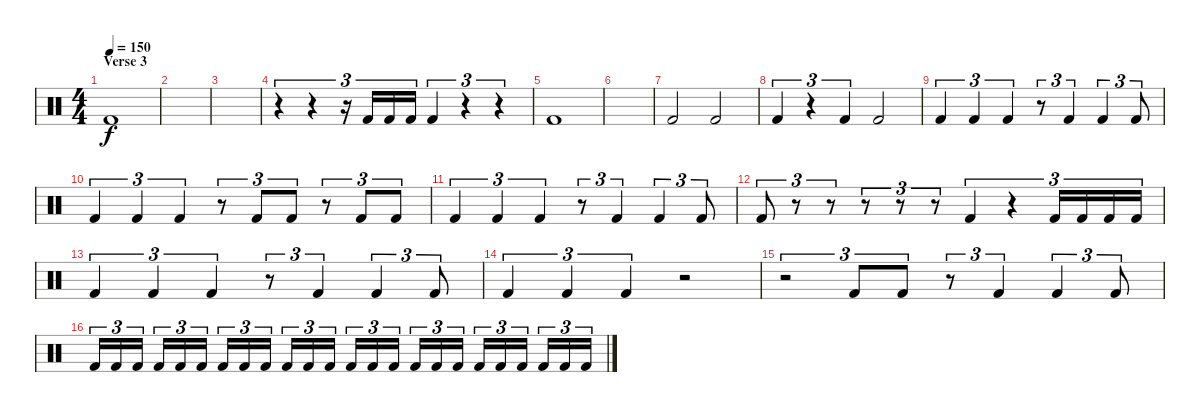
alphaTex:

\track "" {instrument percussion}
\staff {score}
\articulation defaults
\ts (4 4)
\section ("" "Verse 3")
\tempo 150
\clef neutral
\ks c "Kick (hit) 2".1{dy f}
|
|
|
r.4{tu (3 2)} r.4{tu (3 2)} r.16{tu (3 2)} "Kick (hit) 2".16{tu (3 2)} "Kick (hit) 2".16{tu (3 2)} "Kick (hit) 2".16{tu (3 2)} "Kick (hit) 2".4{tu (3 2)} r.4{tu (3 2)} r.4{tu (3 2)} |
"Kick (hit) 2".1 |
|
"Kick (hit) 2".2 "Kick (hit) 2".2 |
"Kick (hit) 2".4{tu (3 2)} r.4{tu (3 2)} "Kick (hit) 2".4{tu (3 2)} "Kick (hit) 2".2 |
"Kick (hit) 2".4{tu (3 2)} "Kick (hit) 2".4{tu (3 2)} "Kick (hit) 2".4{tu (3 2)} r.8{tu (3 2)} "Kick (hit) 2".4{tu (3 2)} "Kick (hit) 2".4{tu (3 2)} "Kick (hit) 2".8{tu (3 2)} |
"Kick (hit) 2".4{tu (3 2)} "Kick (hit) 2".4{tu (3 2)} "Kick (hit) 2".4{tu (3 2)} r.8{tu (3 2)} "Kick (hit) 2".8{tu (3 2)} "Kick (hit) 2".8{tu (3 2)} r.8{tu (3 2)} "Kick (hit) 2".8{tu (3 2)} "Kick (hit) 2".8{tu (3 2)} |
"Kick (hit) 2".4{tu (3 2)} "Kick (hit) 2".4{tu (3 2)} "Kick (hit) 2".4{tu (3 2)} r.8{tu (3 2)} "Kick (hit) 2".4{tu (3 2)} "Kick (hit) 2".4{tu (3 2)} "Kick (hit) 2".8{tu (3 2)} |
"Kick (hit) 2".8{tu (3 2)} r.8{tu (3 2)} r.8{tu (3 2)} r.8{tu (3 2)} r.8{tu (3 2)} r.8{tu (3 2)} "Kick (hit) 2".4{tu (3 2)} r.4{tu (3 2)} "Kick (hit) 2".16{tu (3 2)} "Kick (hit) 2".16{tu (3 2)} "Kick (hit) 2".16{tu (3 2)} "Kick (hit) 2".16{tu (3 2)} |
"Kick (hit) 2".4{tu (3 2)} "Kick (hit) 2".4{tu (3 2)} "Kick (hit) 2".4{tu (3 2)} r.8{tu (3 2)} "Kick (hit) 2".4{tu (3 2)} "Kick (hit) 2".4{tu (3 2)} "Kick (hit) 2".8{tu (3 2)} |
"Kick (hit) 2".4{tu (3 2)} "Kick (hit) 2".4{tu (3 2)} "Kick (hit) 2".4{tu (3 2)} r.2 |
r.2{tu (3 2)} "Kick (hit) 2".8{tu (3 2)} "Kick (hit) 2".8{tu (3 2)} r.8{tu (3 2)} "Kick (hit) 2".4{tu (3 2)} "Kick (hit) 2".4{tu (3 2)} "Kick (hit) 2".8{tu (3 2)} |
"Kick (hit) 2".16{tu (3 2)} "Kick (hit) 2".16{tu (3 2)} "Kick (hit) 2".16{tu (3 2)} "Kick (hit) 2".16{tu (3 2)} "Kick (hit) 2".16{tu (3 2)} "Kick (hit) 2".16{tu (3 2)} "Kick (hit) 2".16{tu (3 2)} "Kick (hit) 2".16{tu (3 2)} "Kick (hit) 2".16{tu (3 2)} "Kick (hit) 2".16{tu (3 2)} "Kick (hit) 2".16{tu (3 2)} "Kick (hit) 2".16{tu (3 2)} "Kick (hit) 2".16{tu (3 2)} "Kick (hit) 2".16{tu (3 2)} "Kick (hit) 2".16{tu (3 2)} "Kick (hit) 2".16{tu (3 2)} "Kick (hit) 2".16{tu (3 2)} "Kick (hit) 2".16{tu (3 2)} "Kick (hit) 2".16{tu (3 2)} "Kick (hit) 2".16{tu (3 2)} "Kick (hit) 2".16{tu (3 2)} "Kick (hit) 2".16{tu (3 2)} "Kick (hit) 2".16{tu (3 2)} "Kick (hit) 2".16{tu (3 2)}
